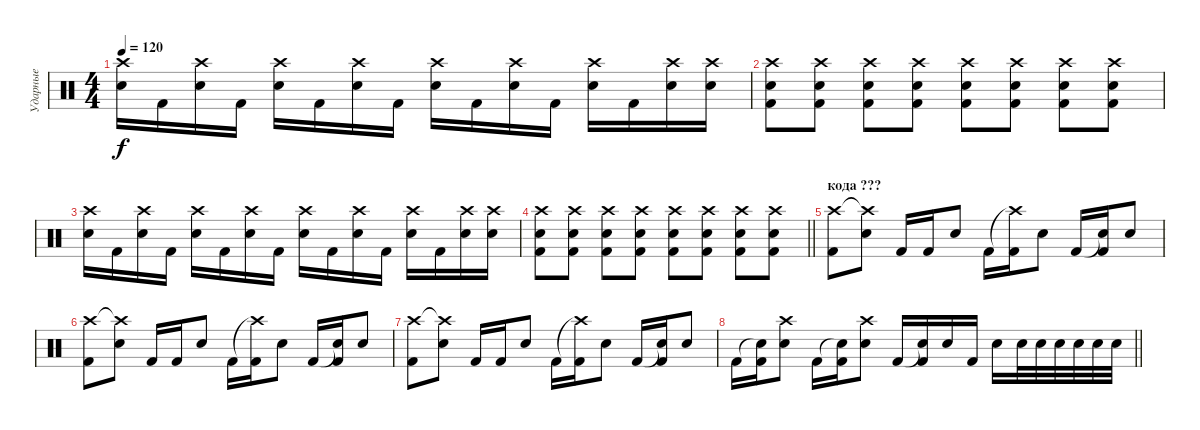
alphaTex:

\track ("Ударные" "Ударные") {instrument percussion}
\staff {score}
\articulation defaults
\ts (4 4)
\tempo 120
\clef neutral
\ks c
("Snare (hit) 2" "Crash high (hit)").16{dy f} "Kick (hit) 2".16 ("Snare (hit) 2" "Crash high (hit)").16 "Kick (hit) 2".16 ("Snare (hit) 2" "Crash high (hit)").16 "Kick (hit) 2".16 ("Snare (hit) 2" "Crash high (hit)").16 "Kick (hit) 2".16 ("Snare (hit) 2" "Crash high (hit)").16 "Kick (hit) 2".16 ("Snare (hit) 2" "Crash high (hit)").16 "Kick (hit) 2".16 ("Snare (hit) 2" "Crash high (hit)").16 "Kick (hit) 2".16 ("Snare (hit) 2" "Crash high (hit)").16 ("Crash high (hit)" "Electric Snare (hit)").16 |
("Crash high (hit)" "Kick (hit) 2" "Electric Snare (hit)").8 ("Crash high (hit)" "Kick (hit) 2" "Electric Snare (hit)").8 ("Crash high (hit)" "Kick (hit) 2" "Electric Snare (hit)").8 ("Crash high (hit)" "Kick (hit) 2" "Electric Snare (hit)").8 ("Crash high (hit)" "Kick (hit) 2" "Electric Snare (hit)").8 ("Crash high (hit)" "Kick (hit) 2" "Electric Snare (hit)").8 ("Crash high (hit)" "Kick (hit) 2" "Electric Snare (hit)").8 ("Crash high (hit)" "Kick (hit) 2" "Electric Snare (hit)").8 |
("Snare (hit) 2" "Crash high (hit)").16 "Kick (hit) 2".16 ("Snare (hit) 2" "Crash high (hit)").16 "Kick (hit) 2".16 ("Snare (hit) 2" "Crash high (hit)").16 "Kick (hit) 2".16 ("Snare (hit) 2" "Crash high (hit)").16 "Kick (hit) 2".16 ("Snare (hit) 2" "Crash high (hit)").16 "Kick (hit) 2".16 ("Snare (hit) 2" "Crash high (hit)").16 "Kick (hit) 2".16 ("Snare (hit) 2" "Crash high (hit)").16 "Kick (hit) 2".16 ("Snare (hit) 2" "Crash high (hit)").16 ("Crash high (hit)" "Electric Snare (hit)").16 |
\barLineRight lightlight
("Crash high (hit)" "Kick (hit) 2" "Electric Snare (hit)").8 ("Crash high (hit)" "Kick (hit) 2" "Electric Snare (hit)").8 ("Crash high (hit)" "Kick (hit) 2" "Electric Snare (hit)").8 ("Crash high (hit)" "Kick (hit) 2" "Electric Snare (hit)").8 ("Crash high (hit)" "Kick (hit) 2" "Electric Snare (hit)").8 ("Crash high (hit)" "Kick (hit) 2" "Electric Snare (hit)").8 ("Crash high (hit)" "Kick (hit) 2" "Electric Snare (hit)").8 ("Crash high (hit)" "Kick (hit) 2" "Electric Snare (hit)").8 |
\section ("" "кода ???")
("Crash high (hit)" "Kick (hit) 2").8 ("Crash high (hit)"{t} "Electric Snare (hit)").8 "Kick (hit) 2".16 "Kick (hit) 2".16 "Electric Snare (hit)".8 "Kick (hit) 2".16 ("Crash high (hit)"{t} "Kick (hit) 2").16 "Electric Snare (hit)".8 "Kick (hit) 2".16 ("Snare (hit)"{t} "Kick (hit) 2").16 "Electric Snare (hit)".8 |
("Crash high (hit)" "Kick (hit) 2").8 ("Crash high (hit)"{t} "Electric Snare (hit)").8 "Kick (hit) 2".16 "Kick (hit) 2".16 "Electric Snare (hit)".8 "Kick (hit) 2".16 ("Crash high (hit)"{t} "Kick (hit) 2").16 "Electric Snare (hit)".8 "Kick (hit) 2".16 ("Snare (hit)"{t} "Kick (hit) 2").16 "Electric Snare (hit)".8 |
("Crash high (hit)" "Kick (hit) 2").8 ("Crash high (hit)"{t} "Electric Snare (hit)").8 "Kick (hit) 2".16 "Kick (hit) 2".16 "Electric Snare (hit)".8 "Kick (hit) 2".16 ("Crash high (hit)"{t} "Kick (hit) 2").16 "Electric Snare (hit)".8 "Kick (hit) 2".16 ("Snare (hit)"{t} "Kick (hit) 2").16 "Electric Snare (hit)".8 |
\barLineRight lightlight "Kick (hit) 2".16
("Snare (hit)"{t} "Kick (hit) 2").16 ("Crash high (hit)" "Electric Snare (hit)").8 "Kick (hit) 2".16 ("Snare (hit)"{t} "Kick (hit) 2").16 ("Crash high (hit)" "Electric Snare (hit)").8 "Kick (hit) 2".16 ("Snare (hit)"{t} "Kick (hit) 2").16 "Electric Snare (hit)".16 "Kick (hit) 2".16 "Electric Snare (hit)".16 "Electric Snare (hit)".32 "Electric Snare (hit)".32 "Electric Snare (hit)".32 "Electric Snare (hit)".32 "Electric Snare (hit)".32 "Electric Snare (hit)".32
